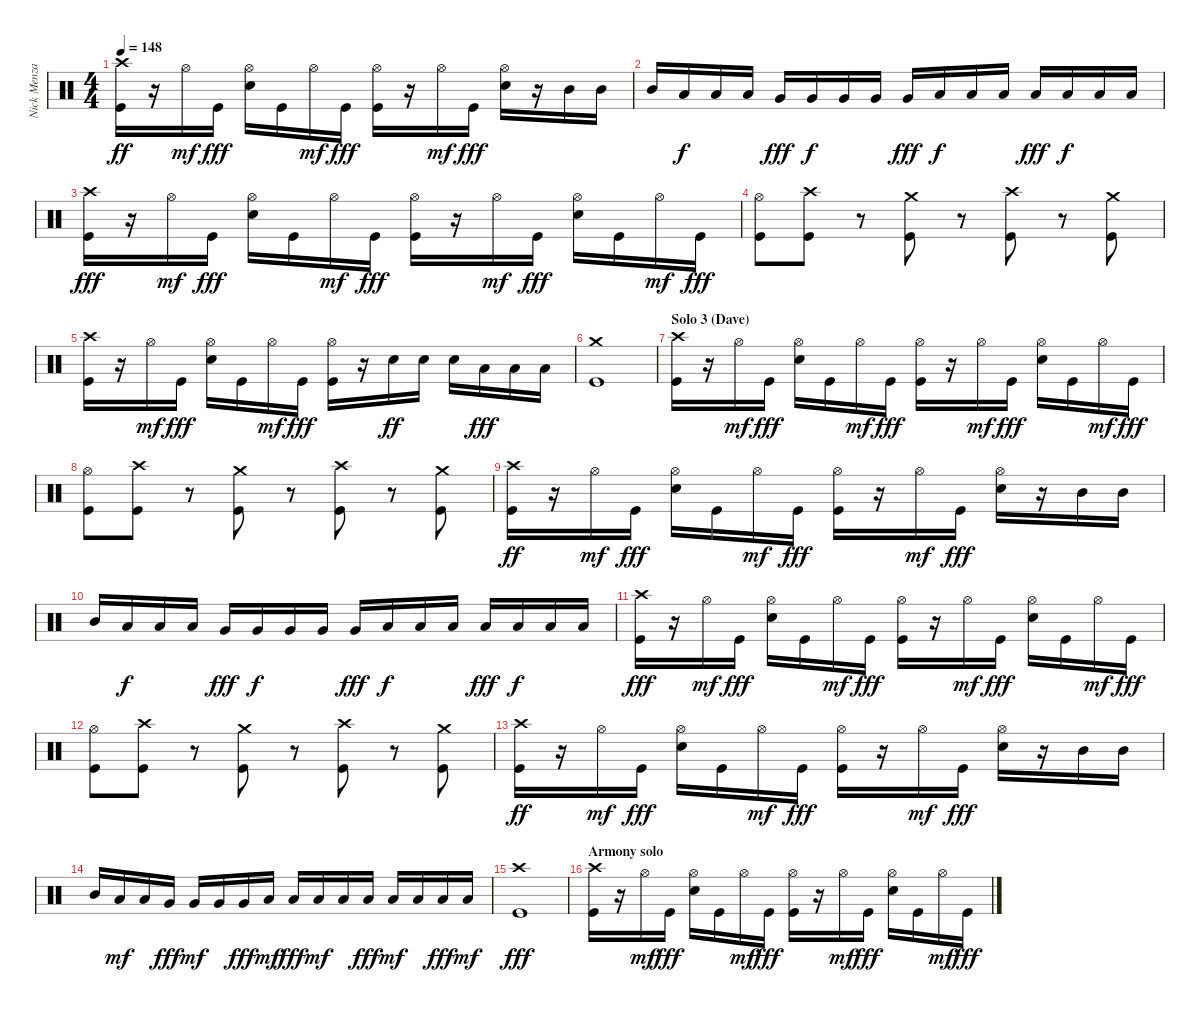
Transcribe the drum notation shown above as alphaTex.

\track ("Nick Menza" "Nick Menza") {instrument percussion}
\staff {score}
\articulation defaults
\ts (4 4)
\tempo 148
\clef neutral
\ks c
("Kick (hit)" "Crash high (hit)").16{dy ff} r.16 "Hi-Hat (open)".16{dy mf} "Kick (hit)".16{dy fff} ("Snare (hit) 2" "Hi-Hat (open)").16 "Kick (hit)".16 "Hi-Hat (open)".16{dy mf} "Kick (hit)".16{dy fff} ("Kick (hit)" "Hi-Hat (open)").16 r.16 "Hi-Hat (open)".16{dy mf} "Kick (hit)".16{dy fff} ("Snare (hit) 2" "Hi-Hat (open)").16 r.16 "Mid Tom (hit)".16 "Mid Tom (hit)".16 |
"Mid Tom (hit)".16 "Low Tom (hit)".16{dy f} "Low Tom (hit)".16 "Low Tom (hit)".16 "Very Low Tom (hit)".16{dy fff} "Very Low Tom (hit)".16{dy f} "Very Low Tom (hit)".16 "Very Low Tom (hit)".16 "Very Low Tom (hit)".16{dy fff} "Low Floor Tom (hit)".16{dy f} "Low Floor Tom (hit)".16 "Low Floor Tom (hit)".16 "Low Floor Tom (hit)".16{dy fff} "Low Floor Tom (hit)".16{dy f} "Low Floor Tom (hit)".16 "Low Floor Tom (hit)".16 |
("Kick (hit)" "Crash high (hit)").16{dy fff} r.16 "Hi-Hat (open)".16{dy mf} "Kick (hit)".16{dy fff} ("Snare (hit) 2" "Hi-Hat (open)").16 "Kick (hit)".16 "Hi-Hat (open)".16{dy mf} "Kick (hit)".16{dy fff} ("Kick (hit)" "Hi-Hat (open)").16 r.16 "Hi-Hat (open)".16{dy mf} "Kick (hit)".16{dy fff} ("Snare (hit) 2" "Hi-Hat (open)").16 "Kick (hit)".16 "Hi-Hat (open)".16{dy mf} "Kick (hit)".16{dy fff} |
("Kick (hit)" "Hi-Hat (open)").8 ("Kick (hit)" "Crash high (hit)").8 r.8 ("Kick (hit)" "Crash medium (hit)").8 r.8 ("Kick (hit)" "Crash high (hit)").8 r.8 ("Kick (hit)" "Crash medium (hit)").8 |
("Kick (hit)" "Crash high (hit)").16 r.16 "Hi-Hat (open)".16{dy mf} "Kick (hit)".16{dy fff} ("Snare (hit) 2" "Hi-Hat (open)").16 "Kick (hit)".16 "Hi-Hat (open)".16{dy mf} "Kick (hit)".16{dy fff} ("Kick (hit)" "Hi-Hat (open)").16 r.16 "Snare (hit) 2".16{dy ff} "Snare (hit) 2".16 "Snare (hit) 2".16 "Low Tom (hit)".16{dy fff} "Low Tom (hit)".16 "Low Tom (hit)".16 |
("Kick (hit)" "Crash medium (hit)").1 |
\section ("" "Solo 3 (Dave)")
("Kick (hit)" "Crash high (hit)").16 r.16 "Hi-Hat (open)".16{dy mf} "Kick (hit)".16{dy fff} ("Snare (hit) 2" "Hi-Hat (open)").16 "Kick (hit)".16 "Hi-Hat (open)".16{dy mf} "Kick (hit)".16{dy fff} ("Kick (hit)" "Hi-Hat (open)").16 r.16 "Hi-Hat (open)".16{dy mf} "Kick (hit)".16{dy fff} ("Snare (hit) 2" "Hi-Hat (open)").16 "Kick (hit)".16 "Hi-Hat (open)".16{dy mf} "Kick (hit)".16{dy fff} |
("Kick (hit)" "Hi-Hat (open)").8 ("Kick (hit)" "Crash high (hit)").8 r.8 ("Kick (hit)" "Crash medium (hit)").8 r.8 ("Kick (hit)" "Crash high (hit)").8 r.8 ("Kick (hit)" "Crash medium (hit)").8 |
("Kick (hit)" "Crash high (hit)").16{dy ff} r.16 "Hi-Hat (open)".16{dy mf} "Kick (hit)".16{dy fff} ("Snare (hit) 2" "Hi-Hat (open)").16 "Kick (hit)".16 "Hi-Hat (open)".16{dy mf} "Kick (hit)".16{dy fff} ("Kick (hit)" "Hi-Hat (open)").16 r.16 "Hi-Hat (open)".16{dy mf} "Kick (hit)".16{dy fff} ("Snare (hit) 2" "Hi-Hat (open)").16 r.16 "Mid Tom (hit)".16 "Mid Tom (hit)".16 |
"Mid Tom (hit)".16 "Low Tom (hit)".16{dy f} "Low Tom (hit)".16 "Low Tom (hit)".16 "Very Low Tom (hit)".16{dy fff} "Very Low Tom (hit)".16{dy f} "Very Low Tom (hit)".16 "Very Low Tom (hit)".16 "Very Low Tom (hit)".16{dy fff} "Low Floor Tom (hit)".16{dy f} "Low Floor Tom (hit)".16 "Low Floor Tom (hit)".16 "Low Floor Tom (hit)".16{dy fff} "Low Floor Tom (hit)".16{dy f} "Low Floor Tom (hit)".16 "Low Floor Tom (hit)".16 |
("Kick (hit)" "Crash high (hit)").16{dy fff} r.16 "Hi-Hat (open)".16{dy mf} "Kick (hit)".16{dy fff} ("Snare (hit) 2" "Hi-Hat (open)").16 "Kick (hit)".16 "Hi-Hat (open)".16{dy mf} "Kick (hit)".16{dy fff} ("Kick (hit)" "Hi-Hat (open)").16 r.16 "Hi-Hat (open)".16{dy mf} "Kick (hit)".16{dy fff} ("Snare (hit) 2" "Hi-Hat (open)").16 "Kick (hit)".16 "Hi-Hat (open)".16{dy mf} "Kick (hit)".16{dy fff} |
("Kick (hit)" "Hi-Hat (open)").8 ("Kick (hit)" "Crash high (hit)").8 r.8 ("Kick (hit)" "Crash medium (hit)").8 r.8 ("Kick (hit)" "Crash high (hit)").8 r.8 ("Kick (hit)" "Crash medium (hit)").8 |
("Kick (hit)" "Crash high (hit)").16{dy ff} r.16 "Hi-Hat (open)".16{dy mf} "Kick (hit)".16{dy fff} ("Snare (hit) 2" "Hi-Hat (open)").16 "Kick (hit)".16 "Hi-Hat (open)".16{dy mf} "Kick (hit)".16{dy fff} ("Kick (hit)" "Hi-Hat (open)").16 r.16 "Hi-Hat (open)".16{dy mf} "Kick (hit)".16{dy fff} ("Snare (hit) 2" "Hi-Hat (open)").16 r.16 "Mid Tom (hit)".16 "Mid Tom (hit)".16 |
"Mid Tom (hit)".16 "Low Tom (hit)".16{dy mf} "Low Tom (hit)".16 "Very Low Tom (hit)".16{dy fff} "Very Low Tom (hit)".16{dy mf} "Very Low Tom (hit)".16 "Very Low Tom (hit)".16{dy fff} "Low Floor Tom (hit)".16{dy mf} "Low Floor Tom (hit)".16{dy fff} "Low Floor Tom (hit)".16{dy mf} "Low Floor Tom (hit)".16 "Low Floor Tom (hit)".16{dy fff} "Low Floor Tom (hit)".16{dy mf} "Low Floor Tom (hit)".16 "Low Floor Tom (hit)".16{dy fff} "Low Floor Tom (hit)".16{dy mf} |
("Kick (hit)" "Crash high (hit)").1{dy fff} |
\section ("" "Armony solo")
("Kick (hit)" "Crash high (hit)").16 r.16 "Hi-Hat (open)".16{dy mf} "Kick (hit)".16{dy fff} ("Snare (hit) 2" "Hi-Hat (open)").16 "Kick (hit)".16 "Hi-Hat (open)".16{dy mf} "Kick (hit)".16{dy fff} ("Kick (hit)" "Hi-Hat (open)").16 r.16 "Hi-Hat (open)".16{dy mf} "Kick (hit)".16{dy fff} ("Snare (hit) 2" "Hi-Hat (open)").16 "Kick (hit)".16 "Hi-Hat (open)".16{dy mf} "Kick (hit)".16{dy fff}
